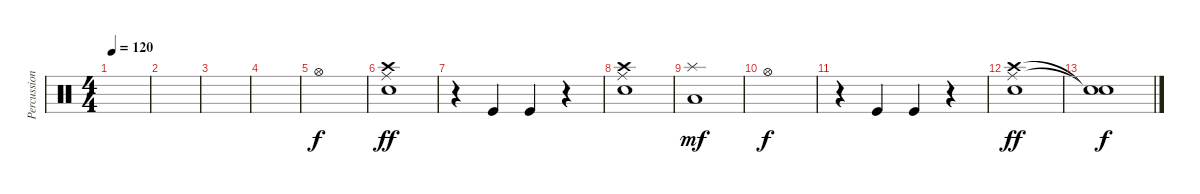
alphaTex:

\track ("Percussions" "Percussion") {instrument percussion}
\staff {score}
\articulation defaults
\ts (4 4)
\tempo 120
\clef neutral
\ks c
|
|
|
|
\section ("" "")
"Hi-Hat (open)".1 |
("Ride (middle)" "Crash high (hit)" "Electric Snare (hit)").1{dy ff} |
r.4 "Kick (hit)".4 "Kick (hit)".4 r.4 |
("Ride (middle)" "Crash high (hit)" "Electric Snare (hit)").1 |
("Splash (hit)" "Low Floor Tom (hit)").1{dy mf} |
"Hi-Hat (open)".1{dy f} |
r.4 "Kick (hit)".4 "Kick (hit)".4 r.4 |
("Ride (middle)" "Crash high (hit)" "Electric Snare (hit)").1{dy ff} |
\section ("" "")
("Snare (hit)"{t} "Snare (hit)"{t}).1{dy f}
